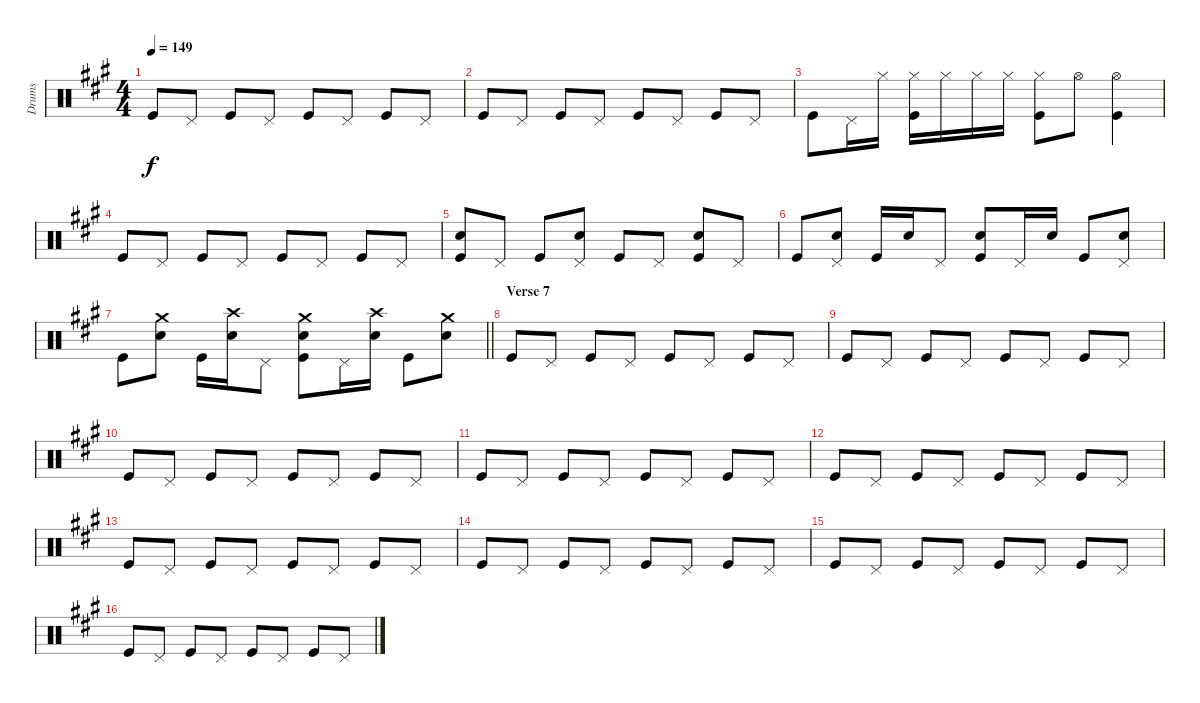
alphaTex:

\track ("Drums" "Drums") {instrument percussion}
\staff {score}
\articulation defaults
\ts (4 4)
\tempo 149
\clef neutral
\ks f#minor "Kick (hit)".8{dy f} "Pedal Hi-Hat (hit)".8 "Kick (hit)".8 "Pedal Hi-Hat (hit)".8 "Kick (hit)".8 "Pedal Hi-Hat (hit)".8 "Kick (hit)".8 "Pedal Hi-Hat (hit)".8
|
"Kick (hit)".8 "Pedal Hi-Hat (hit)".8 "Kick (hit)".8 "Pedal Hi-Hat (hit)".8 "Kick (hit)".8 "Pedal Hi-Hat (hit)".8 "Kick (hit)".8 "Pedal Hi-Hat (hit)".8 |
"Kick (hit)".8 "Pedal Hi-Hat (hit)".16 "Hi-Hat (closed)".16 ("Hi-Hat (closed)" "Kick (hit)").16 "Hi-Hat (closed)".16 "Hi-Hat (closed)".16 "Hi-Hat (closed)".16 ("Hi-Hat (closed)" "Kick (hit)").8 "Hi-Hat (open)".8 ("Hi-Hat (open)" "Kick (hit)").4 |
"Kick (hit)".8 "Pedal Hi-Hat (hit)".8 "Kick (hit)".8 "Pedal Hi-Hat (hit)".8 "Kick (hit)".8 "Pedal Hi-Hat (hit)".8 "Kick (hit)".8 "Pedal Hi-Hat (hit)".8 |
("Snare (hit) 2" "Kick (hit)").8 "Pedal Hi-Hat (hit)".8 "Kick (hit)".8 ("Pedal Hi-Hat (hit)" "Snare (hit) 2").8 "Kick (hit)".8 "Pedal Hi-Hat (hit)".8 ("Snare (hit) 2" "Kick (hit)").8 "Pedal Hi-Hat (hit)".8 |
"Kick (hit)".8 ("Pedal Hi-Hat (hit)" "Snare (hit) 2").8 "Kick (hit)".16 "Snare (hit) 2".16 "Pedal Hi-Hat (hit)".8 ("Snare (hit) 2" "Kick (hit)").8 "Pedal Hi-Hat (hit)".16 "Snare (hit) 2".16 "Kick (hit)".8 ("Pedal Hi-Hat (hit)" "Snare (hit) 2").8 |
\barLineRight lightlight "Kick (hit)".8
("Crash medium (hit)" "Snare (hit) 2").8 "Kick (hit)".16 ("Crash high (hit)" "Snare (hit) 2").16 "Pedal Hi-Hat (hit)".8 ("Crash medium (hit)" "Snare (hit) 2" "Kick (hit)").8 "Pedal Hi-Hat (hit)".16 ("Crash high (hit)" "Snare (hit) 2").16 "Kick (hit)".8 ("Crash medium (hit)" "Snare (hit) 2").8 |
\section ("" "Verse 7")
"Kick (hit)".8 "Pedal Hi-Hat (hit)".8 "Kick (hit)".8 "Pedal Hi-Hat (hit)".8 "Kick (hit)".8 "Pedal Hi-Hat (hit)".8 "Kick (hit)".8 "Pedal Hi-Hat (hit)".8 |
"Kick (hit)".8 "Pedal Hi-Hat (hit)".8 "Kick (hit)".8 "Pedal Hi-Hat (hit)".8 "Kick (hit)".8 "Pedal Hi-Hat (hit)".8 "Kick (hit)".8 "Pedal Hi-Hat (hit)".8 |
"Kick (hit)".8 "Pedal Hi-Hat (hit)".8 "Kick (hit)".8 "Pedal Hi-Hat (hit)".8 "Kick (hit)".8 "Pedal Hi-Hat (hit)".8 "Kick (hit)".8 "Pedal Hi-Hat (hit)".8 |
"Kick (hit)".8 "Pedal Hi-Hat (hit)".8 "Kick (hit)".8 "Pedal Hi-Hat (hit)".8 "Kick (hit)".8 "Pedal Hi-Hat (hit)".8 "Kick (hit)".8 "Pedal Hi-Hat (hit)".8 |
"Kick (hit)".8 "Pedal Hi-Hat (hit)".8 "Kick (hit)".8 "Pedal Hi-Hat (hit)".8 "Kick (hit)".8 "Pedal Hi-Hat (hit)".8 "Kick (hit)".8 "Pedal Hi-Hat (hit)".8 |
"Kick (hit)".8 "Pedal Hi-Hat (hit)".8 "Kick (hit)".8 "Pedal Hi-Hat (hit)".8 "Kick (hit)".8 "Pedal Hi-Hat (hit)".8 "Kick (hit)".8 "Pedal Hi-Hat (hit)".8 |
"Kick (hit)".8 "Pedal Hi-Hat (hit)".8 "Kick (hit)".8 "Pedal Hi-Hat (hit)".8 "Kick (hit)".8 "Pedal Hi-Hat (hit)".8 "Kick (hit)".8 "Pedal Hi-Hat (hit)".8 |
"Kick (hit)".8 "Pedal Hi-Hat (hit)".8 "Kick (hit)".8 "Pedal Hi-Hat (hit)".8 "Kick (hit)".8 "Pedal Hi-Hat (hit)".8 "Kick (hit)".8 "Pedal Hi-Hat (hit)".8 |
"Kick (hit)".8 "Pedal Hi-Hat (hit)".8 "Kick (hit)".8 "Pedal Hi-Hat (hit)".8 "Kick (hit)".8 "Pedal Hi-Hat (hit)".8 "Kick (hit)".8 "Pedal Hi-Hat (hit)".8
